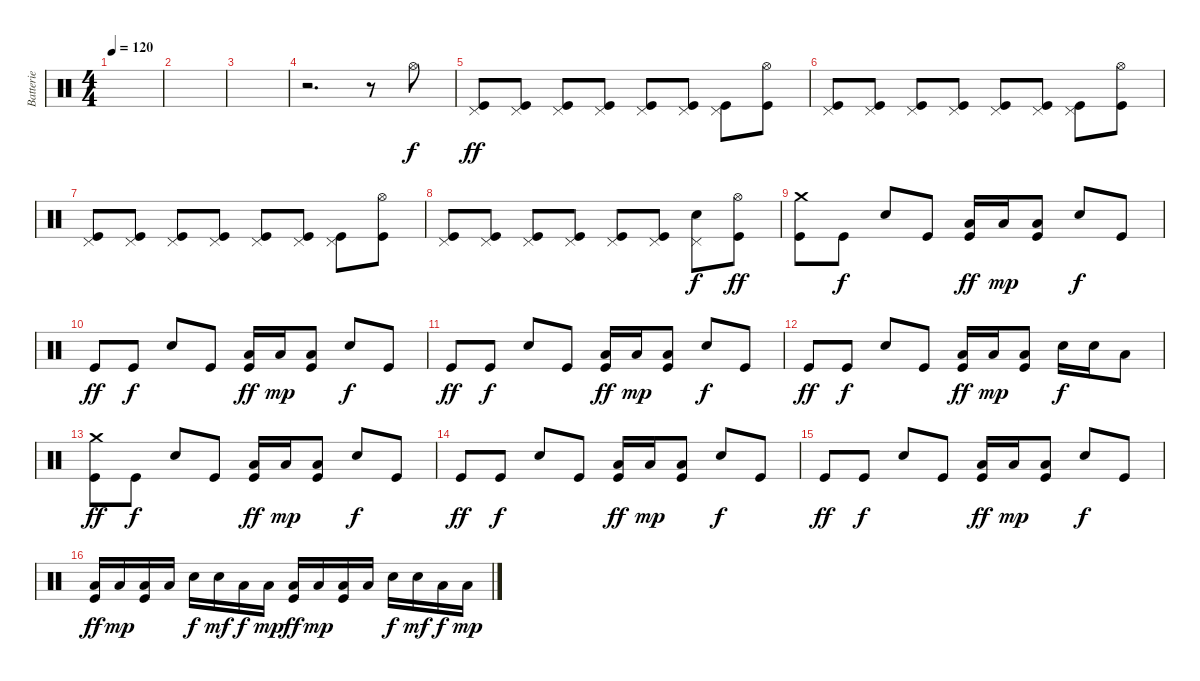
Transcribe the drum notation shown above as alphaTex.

\track ("Batterie" "Batterie") {instrument percussion}
\staff {score}
\articulation defaults
\ts (4 4)
\tempo 120
\clef neutral
\ks c
|
|
|
r.2{d} r.8 "Hi-Hat (open)".8 |
("Pedal Hi-Hat (hit)" "Kick (hit)").8{dy ff} ("Pedal Hi-Hat (hit)" "Kick (hit)").8 ("Pedal Hi-Hat (hit)" "Kick (hit)").8 ("Pedal Hi-Hat (hit)" "Kick (hit)").8 ("Pedal Hi-Hat (hit)" "Kick (hit)").8 ("Pedal Hi-Hat (hit)" "Kick (hit)").8 ("Pedal Hi-Hat (hit)" "Kick (hit)").8 ("Hi-Hat (open)" "Kick (hit)").8 |
("Pedal Hi-Hat (hit)" "Kick (hit)").8 ("Pedal Hi-Hat (hit)" "Kick (hit)").8 ("Pedal Hi-Hat (hit)" "Kick (hit)").8 ("Pedal Hi-Hat (hit)" "Kick (hit)").8 ("Pedal Hi-Hat (hit)" "Kick (hit)").8 ("Pedal Hi-Hat (hit)" "Kick (hit)").8 ("Pedal Hi-Hat (hit)" "Kick (hit)").8 ("Hi-Hat (open)" "Kick (hit)").8 |
("Pedal Hi-Hat (hit)" "Kick (hit)").8 ("Pedal Hi-Hat (hit)" "Kick (hit)").8 ("Pedal Hi-Hat (hit)" "Kick (hit)").8 ("Pedal Hi-Hat (hit)" "Kick (hit)").8 ("Pedal Hi-Hat (hit)" "Kick (hit)").8 ("Pedal Hi-Hat (hit)" "Kick (hit)").8 ("Pedal Hi-Hat (hit)" "Kick (hit)").8 ("Hi-Hat (open)" "Kick (hit)").8 |
("Pedal Hi-Hat (hit)" "Kick (hit)").8 ("Pedal Hi-Hat (hit)" "Kick (hit)").8 ("Pedal Hi-Hat (hit)" "Kick (hit)").8 ("Pedal Hi-Hat (hit)" "Kick (hit)").8 ("Pedal Hi-Hat (hit)" "Kick (hit)").8 ("Pedal Hi-Hat (hit)" "Kick (hit)").8 ("Pedal Hi-Hat (hit)" "Snare (hit) 2").8{dy f} ("Hi-Hat (open)" "Kick (hit)").8{dy ff} |
("Crash medium (hit)" "Kick (hit)").8 "Kick (hit)".8{dy f} "Snare (hit) 2".8 "Kick (hit)".8 ("Low Tom (hit)" "Kick (hit)").16{dy ff} "Low Tom (hit)".16{dy mp} ("Low Tom (hit)" "Kick (hit)").8 "Snare (hit) 2".8{dy f} "Kick (hit)".8 |
"Kick (hit)".8{dy ff} "Kick (hit)".8{dy f} "Snare (hit) 2".8 "Kick (hit)".8 ("Low Tom (hit)" "Kick (hit)").16{dy ff} "Low Tom (hit)".16{dy mp} ("Low Tom (hit)" "Kick (hit)").8 "Snare (hit) 2".8{dy f} "Kick (hit)".8 |
"Kick (hit)".8{dy ff} "Kick (hit)".8{dy f} "Snare (hit) 2".8 "Kick (hit)".8 ("Low Tom (hit)" "Kick (hit)").16{dy ff} "Low Tom (hit)".16{dy mp} ("Low Tom (hit)" "Kick (hit)").8 "Snare (hit) 2".8{dy f} "Kick (hit)".8 |
"Kick (hit)".8{dy ff} "Kick (hit)".8{dy f} "Snare (hit) 2".8 "Kick (hit)".8 ("Low Tom (hit)" "Kick (hit)").16{dy ff} "Low Tom (hit)".16{dy mp} ("Low Tom (hit)" "Kick (hit)").8 "Snare (hit) 2".16{dy f} "Snare (hit) 2".16 "Low Floor Tom (hit)".8 |
("Crash medium (hit)" "Kick (hit)").8{dy ff} "Kick (hit)".8{dy f} "Snare (hit) 2".8 "Kick (hit)".8 ("Low Tom (hit)" "Kick (hit)").16{dy ff} "Low Tom (hit)".16{dy mp} ("Low Tom (hit)" "Kick (hit)").8 "Snare (hit) 2".8{dy f} "Kick (hit)".8 |
"Kick (hit)".8{dy ff} "Kick (hit)".8{dy f} "Snare (hit) 2".8 "Kick (hit)".8 ("Low Tom (hit)" "Kick (hit)").16{dy ff} "Low Tom (hit)".16{dy mp} ("Low Tom (hit)" "Kick (hit)").8 "Snare (hit) 2".8{dy f} "Kick (hit)".8 |
"Kick (hit)".8{dy ff} "Kick (hit)".8{dy f} "Snare (hit) 2".8 "Kick (hit)".8 ("Low Tom (hit)" "Kick (hit)").16{dy ff} "Low Tom (hit)".16{dy mp} ("Low Tom (hit)" "Kick (hit)").8 "Snare (hit) 2".8{dy f} "Kick (hit)".8 |
("Low Tom (hit)" "Kick (hit)").16{dy ff} "Low Tom (hit)".16{dy mp} ("Low Tom (hit)" "Kick (hit)").16 "Low Tom (hit)".16 "Snare (hit) 2".16{dy f} "Snare (hit) 2".16{dy mf} "Low Floor Tom (hit)".16{dy f} "Low Tom (hit)".16{dy mp} ("Low Tom (hit)" "Kick (hit)").16{dy ff} "Low Tom (hit)".16{dy mp} ("Low Tom (hit)" "Kick (hit)").16 "Low Tom (hit)".16 "Snare (hit) 2".16{dy f} "Snare (hit) 2".16{dy mf} "Low Floor Tom (hit)".16{dy f} "Low Tom (hit)".16{dy mp}
